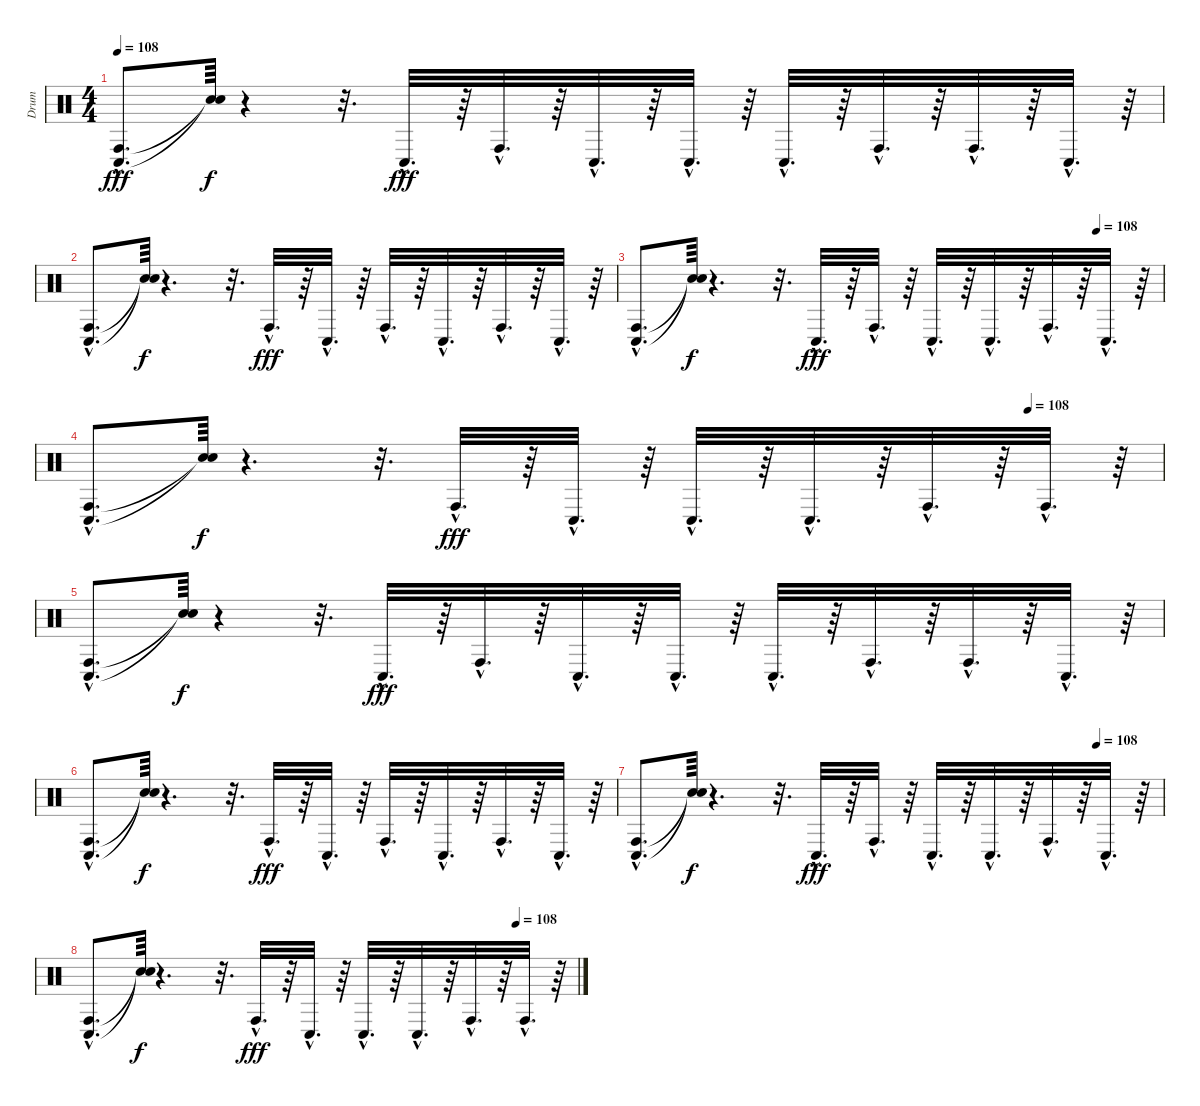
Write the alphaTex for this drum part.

\track ("Drum" "Drum") {instrument percussion}
\staff {score}
\articulation defaults
\ts (4 4)
\tempo 108
\clef neutral
\ks c
("Conga high (hit)"{hac} "Conga low (hit)"{hac}).8{d dy fff} ("Snare (hit)"{t} "Snare (hit)"{t}).64{dy f} r.4 r.32{d} "Conga low (hit)"{hac}.32{d dy fff} r.64 "Conga high (hit)"{hac}.32{d} r.64 "Conga low (hit)"{hac}.32{d} r.64 "Conga low (hit)"{hac}.32{d} r.64 "Conga low (hit)"{hac}.32{d} r.64 "Conga high (hit)"{hac}.32{d} r.64 "Conga high (hit)"{hac}.32{d} r.64 "Conga low (hit)"{hac}.32{d} r.64 |
("Conga low (hit)"{hac} "Conga high (hit)"{hac}).8{d} ("Snare (hit)"{t} "Snare (hit)"{t}).64{dy f} r.4{d} r.32{d} "Conga high (hit)"{hac}.32{d dy fff} r.64 "Conga low (hit)"{hac}.32{d} r.64 "Conga high (hit)"{hac}.32{d} r.64 "Conga low (hit)"{hac}.32{d} r.64 "Conga high (hit)"{hac}.32{d} r.64 "Conga low (hit)"{hac}.32{d} r.64 |
\tempo (108 0.875)
("Conga low (hit)"{hac} "Conga high (hit)"{hac}).8{d} ("Snare (hit)"{t} "Snare (hit)"{t}).64{dy f} r.4{d} r.32{d} "Conga low (hit)"{hac}.32{d dy fff} r.64 "Conga high (hit)"{hac}.32{d} r.64 "Conga low (hit)"{hac}.32{d} r.64 "Conga low (hit)"{hac}.32{d} r.64 "Conga high (hit)"{hac}.32{d} r.64 "Conga low (hit)"{hac}.32{d} r.64 |
\tempo (108 0.875)
("Conga high (hit)"{hac} "Conga low (hit)"{hac}).8{d} ("Snare (hit)"{t} "Snare (hit)"{t}).64{dy f} r.4{d} r.32{d} "Conga high (hit)"{hac}.32{d dy fff} r.64 "Conga low (hit)"{hac}.32{d} r.64 "Conga low (hit)"{hac}.32{d} r.64 "Conga low (hit)"{hac}.32{d} r.64 "Conga high (hit)"{hac}.32{d} r.64 "Conga high (hit)"{hac}.32{d} r.64 |
("Conga high (hit)"{hac} "Conga low (hit)"{hac}).8{d} ("Snare (hit)"{t} "Snare (hit)"{t}).64{dy f} r.4 r.32{d} "Conga low (hit)"{hac}.32{d dy fff} r.64 "Conga high (hit)"{hac}.32{d} r.64 "Conga low (hit)"{hac}.32{d} r.64 "Conga low (hit)"{hac}.32{d} r.64 "Conga low (hit)"{hac}.32{d} r.64 "Conga high (hit)"{hac}.32{d} r.64 "Conga high (hit)"{hac}.32{d} r.64 "Conga low (hit)"{hac}.32{d} r.64 |
("Conga low (hit)"{hac} "Conga high (hit)"{hac}).8{d} ("Snare (hit)"{t} "Snare (hit)"{t}).64{dy f} r.4{d} r.32{d} "Conga high (hit)"{hac}.32{d dy fff} r.64 "Conga low (hit)"{hac}.32{d} r.64 "Conga high (hit)"{hac}.32{d} r.64 "Conga low (hit)"{hac}.32{d} r.64 "Conga high (hit)"{hac}.32{d} r.64 "Conga low (hit)"{hac}.32{d} r.64 |
\tempo (108 0.875)
("Conga low (hit)"{hac} "Conga high (hit)"{hac}).8{d} ("Snare (hit)"{t} "Snare (hit)"{t}).64{dy f} r.4{d} r.32{d} "Conga low (hit)"{hac}.32{d dy fff} r.64 "Conga high (hit)"{hac}.32{d} r.64 "Conga low (hit)"{hac}.32{d} r.64 "Conga low (hit)"{hac}.32{d} r.64 "Conga high (hit)"{hac}.32{d} r.64 "Conga low (hit)"{hac}.32{d} r.64 |
\tempo (108 0.875)
("Conga high (hit)"{hac} "Conga low (hit)"{hac}).8{d} ("Snare (hit)"{t} "Snare (hit)"{t}).64{dy f} r.4{d} r.32{d} "Conga high (hit)"{hac}.32{d dy fff} r.64 "Conga low (hit)"{hac}.32{d} r.64 "Conga low (hit)"{hac}.32{d} r.64 "Conga low (hit)"{hac}.32{d} r.64 "Conga high (hit)"{hac}.32{d} r.64 "Conga high (hit)"{hac}.32{d} r.64
